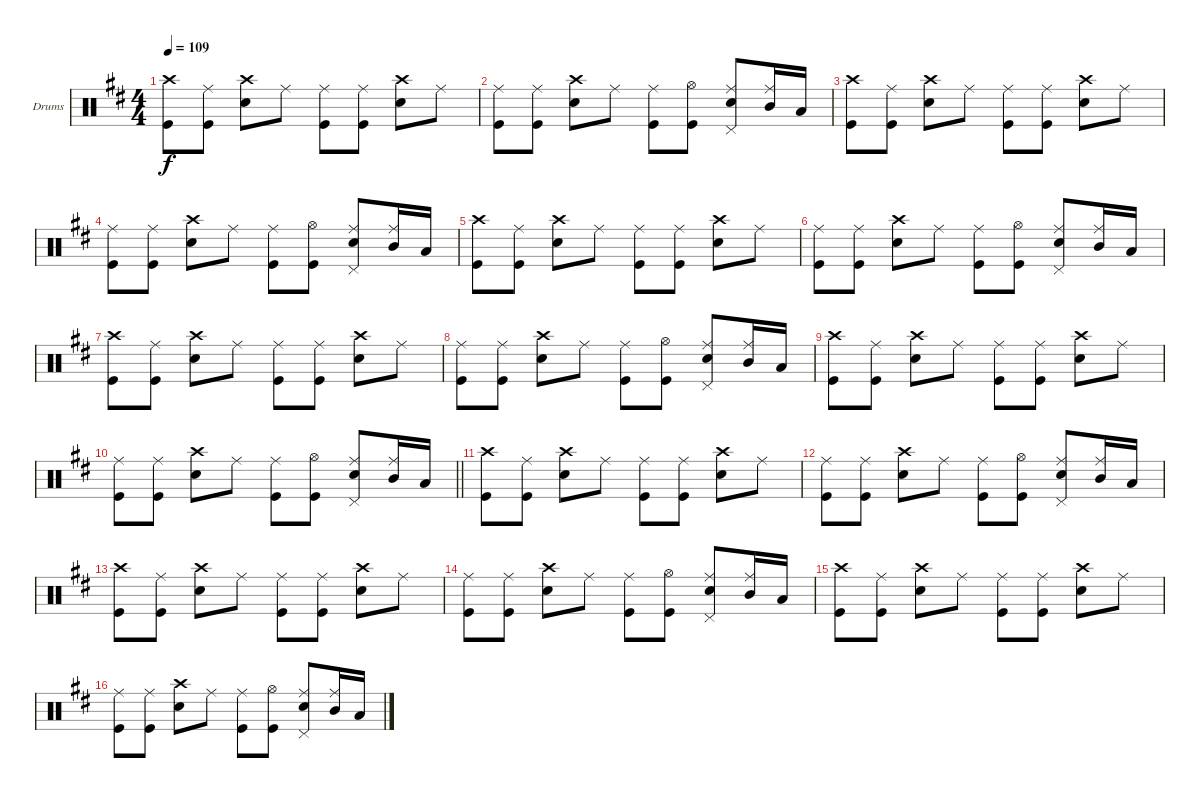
\bracketExtendMode groupsimilarinstruments
\firstSystemTrackNameOrientation horizontal
\otherSystemsTrackNameOrientation horizontal
\track ("Drumkit" "Drums") {instrument percussion}
\staff {score}
\articulation defaults
\ts (4 4)
\tempo 109
\clef neutral
\ks d
("Kick (hit)" "Crash high (hit)").8{dy f} ("Kick (hit)" "Ride (middle)").8 ("Snare (hit) 2" "Crash high (hit)").8 "Ride (middle)".8 ("Kick (hit)" "Ride (middle)").8 ("Kick (hit)" "Ride (middle)").8 ("Snare (hit) 2" "Crash high (hit)").8 "Ride (middle)".8 |
("Kick (hit)" "Ride (middle)").8 ("Kick (hit)" "Ride (middle)").8 ("Snare (hit) 2" "Crash high (hit)").8 "Ride (middle)".8 ("Kick (hit)" "Ride (middle)").8 ("Kick (hit)" "Hi-Hat (open)").8 ("Snare (hit) 2" "Pedal Hi-Hat (hit)" "Ride (middle)").8 ("Ride (middle)" "Mid Tom (hit)").16 "Low Tom (hit)".16 |
("Kick (hit)" "Crash high (hit)").8 ("Kick (hit)" "Ride (middle)").8 ("Snare (hit) 2" "Crash high (hit)").8 "Ride (middle)".8 ("Kick (hit)" "Ride (middle)").8 ("Kick (hit)" "Ride (middle)").8 ("Snare (hit) 2" "Crash high (hit)").8 "Ride (middle)".8 |
("Kick (hit)" "Ride (middle)").8 ("Kick (hit)" "Ride (middle)").8 ("Snare (hit) 2" "Crash high (hit)").8 "Ride (middle)".8 ("Kick (hit)" "Ride (middle)").8 ("Kick (hit)" "Hi-Hat (open)").8 ("Snare (hit) 2" "Pedal Hi-Hat (hit)" "Ride (middle)").8 ("Ride (middle)" "Mid Tom (hit)").16 "Low Tom (hit)".16 |
("Kick (hit)" "Crash high (hit)").8 ("Kick (hit)" "Ride (middle)").8 ("Snare (hit) 2" "Crash high (hit)").8 "Ride (middle)".8 ("Kick (hit)" "Ride (middle)").8 ("Kick (hit)" "Ride (middle)").8 ("Snare (hit) 2" "Crash high (hit)").8 "Ride (middle)".8 |
("Kick (hit)" "Ride (middle)").8 ("Kick (hit)" "Ride (middle)").8 ("Snare (hit) 2" "Crash high (hit)").8 "Ride (middle)".8 ("Kick (hit)" "Ride (middle)").8 ("Kick (hit)" "Hi-Hat (open)").8 ("Snare (hit) 2" "Pedal Hi-Hat (hit)" "Ride (middle)").8 ("Ride (middle)" "Mid Tom (hit)").16 "Low Tom (hit)".16 |
("Kick (hit)" "Crash high (hit)").8 ("Kick (hit)" "Ride (middle)").8 ("Snare (hit) 2" "Crash high (hit)").8 "Ride (middle)".8 ("Kick (hit)" "Ride (middle)").8 ("Kick (hit)" "Ride (middle)").8 ("Snare (hit) 2" "Crash high (hit)").8 "Ride (middle)".8 |
("Kick (hit)" "Ride (middle)").8 ("Kick (hit)" "Ride (middle)").8 ("Snare (hit) 2" "Crash high (hit)").8 "Ride (middle)".8 ("Kick (hit)" "Ride (middle)").8 ("Kick (hit)" "Hi-Hat (open)").8 ("Snare (hit) 2" "Pedal Hi-Hat (hit)" "Ride (middle)").8 ("Ride (middle)" "Mid Tom (hit)").16 "Low Tom (hit)".16 |
("Kick (hit)" "Crash high (hit)").8 ("Kick (hit)" "Ride (middle)").8 ("Snare (hit) 2" "Crash high (hit)").8 "Ride (middle)".8 ("Kick (hit)" "Ride (middle)").8 ("Kick (hit)" "Ride (middle)").8 ("Snare (hit) 2" "Crash high (hit)").8 "Ride (middle)".8 |
\barLineRight lightlight
("Kick (hit)" "Ride (middle)").8 ("Kick (hit)" "Ride (middle)").8 ("Snare (hit) 2" "Crash high (hit)").8 "Ride (middle)".8 ("Kick (hit)" "Ride (middle)").8 ("Kick (hit)" "Hi-Hat (open)").8 ("Snare (hit) 2" "Pedal Hi-Hat (hit)" "Ride (middle)").8 ("Ride (middle)" "Mid Tom (hit)").16 "Low Tom (hit)".16 |
("Kick (hit)" "Crash high (hit)").8 ("Kick (hit)" "Ride (middle)").8 ("Snare (hit) 2" "Crash high (hit)").8 "Ride (middle)".8 ("Kick (hit)" "Ride (middle)").8 ("Kick (hit)" "Ride (middle)").8 ("Snare (hit) 2" "Crash high (hit)").8 "Ride (middle)".8 |
("Kick (hit)" "Ride (middle)").8 ("Kick (hit)" "Ride (middle)").8 ("Snare (hit) 2" "Crash high (hit)").8 "Ride (middle)".8 ("Kick (hit)" "Ride (middle)").8 ("Kick (hit)" "Hi-Hat (open)").8 ("Snare (hit) 2" "Pedal Hi-Hat (hit)" "Ride (middle)").8 ("Ride (middle)" "Mid Tom (hit)").16 "Low Tom (hit)".16 |
("Kick (hit)" "Crash high (hit)").8 ("Kick (hit)" "Ride (middle)").8 ("Snare (hit) 2" "Crash high (hit)").8 "Ride (middle)".8 ("Kick (hit)" "Ride (middle)").8 ("Kick (hit)" "Ride (middle)").8 ("Snare (hit) 2" "Crash high (hit)").8 "Ride (middle)".8 |
("Kick (hit)" "Ride (middle)").8 ("Kick (hit)" "Ride (middle)").8 ("Snare (hit) 2" "Crash high (hit)").8 "Ride (middle)".8 ("Kick (hit)" "Ride (middle)").8 ("Kick (hit)" "Hi-Hat (open)").8 ("Snare (hit) 2" "Pedal Hi-Hat (hit)" "Ride (middle)").8 ("Ride (middle)" "Mid Tom (hit)").16 "Low Tom (hit)".16 |
("Kick (hit)" "Crash high (hit)").8 ("Kick (hit)" "Ride (middle)").8 ("Snare (hit) 2" "Crash high (hit)").8 "Ride (middle)".8 ("Kick (hit)" "Ride (middle)").8 ("Kick (hit)" "Ride (middle)").8 ("Snare (hit) 2" "Crash high (hit)").8 "Ride (middle)".8 |
("Kick (hit)" "Ride (middle)").8 ("Kick (hit)" "Ride (middle)").8 ("Snare (hit) 2" "Crash high (hit)").8 "Ride (middle)".8 ("Kick (hit)" "Ride (middle)").8 ("Kick (hit)" "Hi-Hat (open)").8 ("Snare (hit) 2" "Pedal Hi-Hat (hit)" "Ride (middle)").8 ("Ride (middle)" "Mid Tom (hit)").16 "Low Tom (hit)".16
